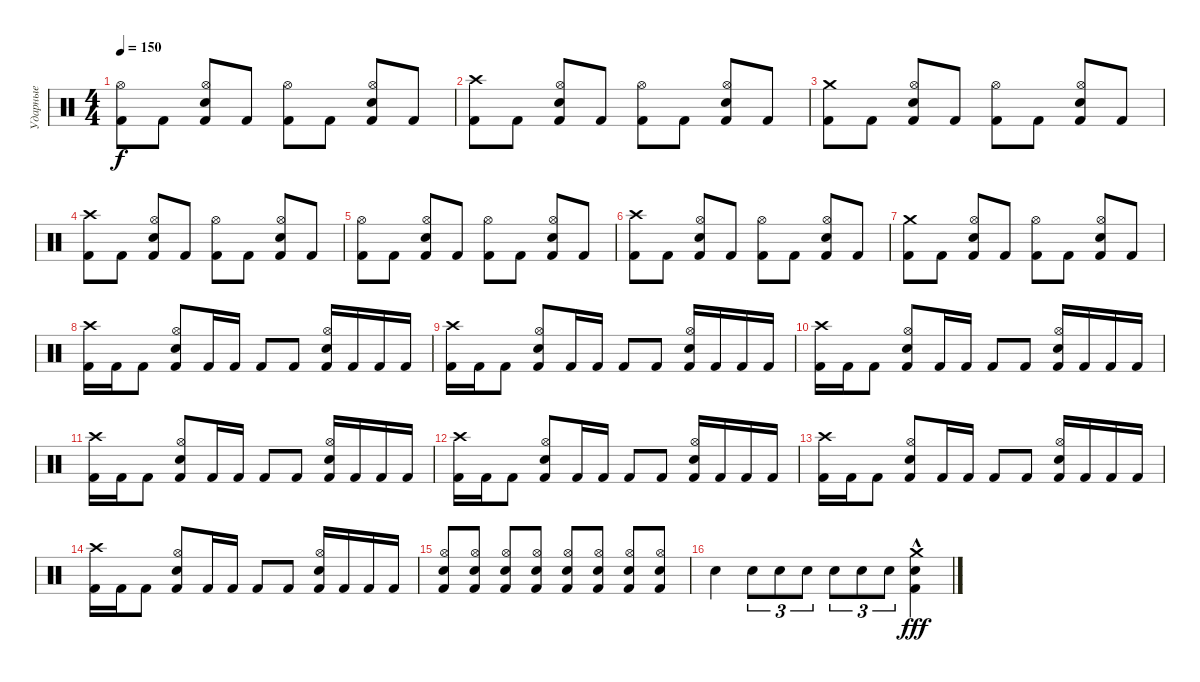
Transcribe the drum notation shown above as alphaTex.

\track ("Ударные" "Ударные") {instrument percussion}
\staff {score}
\articulation defaults
\ts (4 4)
\tempo 150
\clef neutral
\ks c
("Kick (hit) 2" "Hi-Hat (open)").8{dy f} "Kick (hit) 2".8 ("Snare (hit) 2" "Kick (hit) 2" "Hi-Hat (open)").8 "Kick (hit) 2".8 ("Kick (hit) 2" "Hi-Hat (open)").8 "Kick (hit) 2".8 ("Snare (hit) 2" "Kick (hit) 2" "Hi-Hat (open)").8 "Kick (hit) 2".8 |
("Kick (hit) 2" "Crash high (hit)").8 "Kick (hit) 2".8 ("Snare (hit) 2" "Kick (hit) 2" "Hi-Hat (open)").8 "Kick (hit) 2".8 ("Kick (hit) 2" "Hi-Hat (open)").8 "Kick (hit) 2".8 ("Snare (hit) 2" "Kick (hit) 2" "Hi-Hat (open)").8 "Kick (hit) 2".8 |
("Kick (hit) 2" "Crash medium (hit)").8 "Kick (hit) 2".8 ("Snare (hit) 2" "Kick (hit) 2" "Hi-Hat (open)").8 "Kick (hit) 2".8 ("Kick (hit) 2" "Hi-Hat (open)").8 "Kick (hit) 2".8 ("Snare (hit) 2" "Kick (hit) 2" "Hi-Hat (open)").8 "Kick (hit) 2".8 |
("Kick (hit) 2" "Crash high (hit)").8 "Kick (hit) 2".8 ("Snare (hit) 2" "Kick (hit) 2" "Hi-Hat (open)").8 "Kick (hit) 2".8 ("Kick (hit) 2" "Hi-Hat (open)").8 "Kick (hit) 2".8 ("Snare (hit) 2" "Kick (hit) 2" "Hi-Hat (open)").8 "Kick (hit) 2".8 |
("Kick (hit) 2" "Hi-Hat (open)").8 "Kick (hit) 2".8 ("Snare (hit) 2" "Kick (hit) 2" "Hi-Hat (open)").8 "Kick (hit) 2".8 ("Kick (hit) 2" "Hi-Hat (open)").8 "Kick (hit) 2".8 ("Snare (hit) 2" "Kick (hit) 2" "Hi-Hat (open)").8 "Kick (hit) 2".8 |
("Kick (hit) 2" "Crash high (hit)").8 "Kick (hit) 2".8 ("Snare (hit) 2" "Kick (hit) 2" "Hi-Hat (open)").8 "Kick (hit) 2".8 ("Kick (hit) 2" "Hi-Hat (open)").8 "Kick (hit) 2".8 ("Snare (hit) 2" "Kick (hit) 2" "Hi-Hat (open)").8 "Kick (hit) 2".8 |
("Kick (hit) 2" "Crash medium (hit)").8 "Kick (hit) 2".8 ("Snare (hit) 2" "Kick (hit) 2" "Hi-Hat (open)").8 "Kick (hit) 2".8 ("Kick (hit) 2" "Hi-Hat (open)").8 "Kick (hit) 2".8 ("Snare (hit) 2" "Kick (hit) 2" "Hi-Hat (open)").8 "Kick (hit) 2".8 |
("Crash high (hit)" "Kick (hit) 2").16 "Kick (hit) 2".16 "Kick (hit) 2".8 ("Snare (hit) 2" "Hi-Hat (open)" "Kick (hit) 2").8 "Kick (hit) 2".16 "Kick (hit) 2".16 "Kick (hit) 2".8 "Kick (hit) 2".8 ("Snare (hit) 2" "Hi-Hat (open)" "Kick (hit) 2").16 "Kick (hit) 2".16 "Kick (hit) 2".16 "Kick (hit) 2".16 |
("Crash high (hit)" "Kick (hit) 2").16 "Kick (hit) 2".16 "Kick (hit) 2".8 ("Snare (hit) 2" "Hi-Hat (open)" "Kick (hit) 2").8 "Kick (hit) 2".16 "Kick (hit) 2".16 "Kick (hit) 2".8 "Kick (hit) 2".8 ("Snare (hit) 2" "Hi-Hat (open)" "Kick (hit) 2").16 "Kick (hit) 2".16 "Kick (hit) 2".16 "Kick (hit) 2".16 |
("Crash high (hit)" "Kick (hit) 2").16 "Kick (hit) 2".16 "Kick (hit) 2".8 ("Snare (hit) 2" "Hi-Hat (open)" "Kick (hit) 2").8 "Kick (hit) 2".16 "Kick (hit) 2".16 "Kick (hit) 2".8 "Kick (hit) 2".8 ("Snare (hit) 2" "Hi-Hat (open)" "Kick (hit) 2").16 "Kick (hit) 2".16 "Kick (hit) 2".16 "Kick (hit) 2".16 |
("Crash high (hit)" "Kick (hit) 2").16 "Kick (hit) 2".16 "Kick (hit) 2".8 ("Snare (hit) 2" "Hi-Hat (open)" "Kick (hit) 2").8 "Kick (hit) 2".16 "Kick (hit) 2".16 "Kick (hit) 2".8 "Kick (hit) 2".8 ("Snare (hit) 2" "Hi-Hat (open)" "Kick (hit) 2").16 "Kick (hit) 2".16 "Kick (hit) 2".16 "Kick (hit) 2".16 |
("Crash high (hit)" "Kick (hit) 2").16 "Kick (hit) 2".16 "Kick (hit) 2".8 ("Snare (hit) 2" "Hi-Hat (open)" "Kick (hit) 2").8 "Kick (hit) 2".16 "Kick (hit) 2".16 "Kick (hit) 2".8 "Kick (hit) 2".8 ("Snare (hit) 2" "Hi-Hat (open)" "Kick (hit) 2").16 "Kick (hit) 2".16 "Kick (hit) 2".16 "Kick (hit) 2".16 |
("Crash high (hit)" "Kick (hit) 2").16 "Kick (hit) 2".16 "Kick (hit) 2".8 ("Snare (hit) 2" "Hi-Hat (open)" "Kick (hit) 2").8 "Kick (hit) 2".16 "Kick (hit) 2".16 "Kick (hit) 2".8 "Kick (hit) 2".8 ("Snare (hit) 2" "Hi-Hat (open)" "Kick (hit) 2").16 "Kick (hit) 2".16 "Kick (hit) 2".16 "Kick (hit) 2".16 |
("Crash high (hit)" "Kick (hit) 2").16 "Kick (hit) 2".16 "Kick (hit) 2".8 ("Snare (hit) 2" "Hi-Hat (open)" "Kick (hit) 2").8 "Kick (hit) 2".16 "Kick (hit) 2".16 "Kick (hit) 2".8 "Kick (hit) 2".8 ("Snare (hit) 2" "Hi-Hat (open)" "Kick (hit) 2").16 "Kick (hit) 2".16 "Kick (hit) 2".16 "Kick (hit) 2".16 |
("Snare (hit) 2" "Hi-Hat (open)" "Kick (hit) 2").8 ("Snare (hit) 2" "Hi-Hat (open)" "Kick (hit) 2").8 ("Snare (hit) 2" "Hi-Hat (open)" "Kick (hit) 2").8 ("Snare (hit) 2" "Hi-Hat (open)" "Kick (hit) 2").8 ("Snare (hit) 2" "Hi-Hat (open)" "Kick (hit) 2").8 ("Snare (hit) 2" "Hi-Hat (open)" "Kick (hit) 2").8 ("Snare (hit) 2" "Hi-Hat (open)" "Kick (hit) 2").8 ("Snare (hit) 2" "Hi-Hat (open)" "Kick (hit) 2").8 |
"Snare (hit) 2".4 "Snare (hit) 2".8{tu (3 2)} "Snare (hit) 2".8{tu (3 2)} "Snare (hit) 2".8{tu (3 2)} "Snare (hit) 2".8{tu (3 2)} "Snare (hit) 2".8{tu (3 2)} "Snare (hit) 2".8{tu (3 2)} ("Snare (hit) 2"{hac} "Kick (hit) 2"{hac} "Crash medium (hit)"{hac}).4{dy fff}
